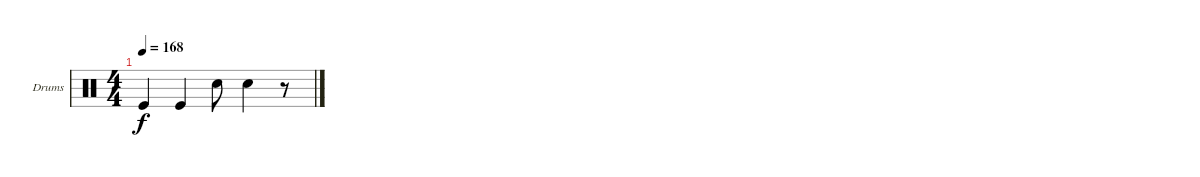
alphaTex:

\defaultSystemsLayout 4
\bracketExtendMode groupsimilarinstruments
\firstSystemTrackNameOrientation horizontal
\otherSystemsTrackNameOrientation horizontal
\track ("Е. Кулаков" "Drums") {instrument percussion}
\staff {score}
\articulation defaults
\ts (4 4)
\tempo 168
\clef neutral
\ks c "Kick (hit)".4{dy f} "Kick (hit)".4 "Snare (hit) 2".8 "Snare (hit) 2".4
r.8
